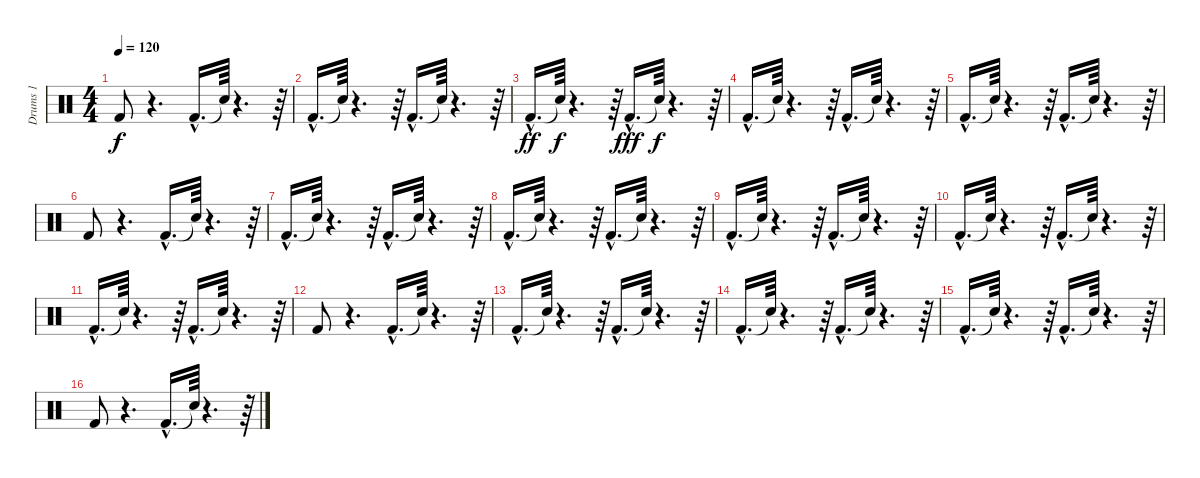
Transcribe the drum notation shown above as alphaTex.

\track ("Drums 1" "Drums 1") {instrument percussion}
\staff {score}
\articulation defaults
\ts (4 4)
\tempo 120
\clef neutral
\ks c "Kick (hit) 2".8{dy f}
r.4{d} "Kick (hit) 2"{hac}.16{d} "Snare (hit)"{t}.64 r.4{d} r.64 |
"Kick (hit) 2"{hac}.16{d} "Snare (hit)"{t}.64 r.4{d} r.64 "Kick (hit) 2"{hac}.16{d} "Snare (hit)"{t}.64 r.4{d} r.64 |
"Kick (hit) 2"{hac}.16{d dy ff} "Snare (hit)"{t}.64{dy f} r.4{d} r.64 "Kick (hit) 2"{hac}.16{d dy fff} "Snare (hit)"{t}.64{dy f} r.4{d} r.64 |
"Kick (hit) 2"{hac}.16{d} "Snare (hit)"{t}.64 r.4{d} r.64 "Kick (hit) 2"{hac}.16{d} "Snare (hit)"{t}.64 r.4{d} r.64 |
"Kick (hit) 2"{hac}.16{d} "Snare (hit)"{t}.64 r.4{d} r.64 "Kick (hit) 2"{hac}.16{d} "Snare (hit)"{t}.64 r.4{d} r.64 |
"Kick (hit) 2".8 r.4{d} "Kick (hit) 2"{hac}.16{d} "Snare (hit)"{t}.64 r.4{d} r.64 |
"Kick (hit) 2"{hac}.16{d} "Snare (hit)"{t}.64 r.4{d} r.64 "Kick (hit) 2"{hac}.16{d} "Snare (hit)"{t}.64 r.4{d} r.64 |
"Kick (hit) 2"{hac}.16{d} "Snare (hit)"{t}.64 r.4{d} r.64 "Kick (hit) 2"{hac}.16{d} "Snare (hit)"{t}.64 r.4{d} r.64 |
"Kick (hit) 2"{hac}.16{d} "Snare (hit)"{t}.64 r.4{d} r.64 "Kick (hit) 2"{hac}.16{d} "Snare (hit)"{t}.64 r.4{d} r.64 |
"Kick (hit) 2"{hac}.16{d} "Snare (hit)"{t}.64 r.4{d} r.64 "Kick (hit) 2"{hac}.16{d} "Snare (hit)"{t}.64 r.4{d} r.64 |
"Kick (hit) 2"{hac}.16{d} "Snare (hit)"{t}.64 r.4{d} r.64 "Kick (hit) 2"{hac}.16{d} "Snare (hit)"{t}.64 r.4{d} r.64 |
"Kick (hit) 2".8 r.4{d} "Kick (hit) 2"{hac}.16{d} "Snare (hit)"{t}.64 r.4{d} r.64 |
"Kick (hit) 2"{hac}.16{d} "Snare (hit)"{t}.64 r.4{d} r.64 "Kick (hit) 2"{hac}.16{d} "Snare (hit)"{t}.64 r.4{d} r.64 |
"Kick (hit) 2"{hac}.16{d} "Snare (hit)"{t}.64 r.4{d} r.64 "Kick (hit) 2"{hac}.16{d} "Snare (hit)"{t}.64 r.4{d} r.64 |
"Kick (hit) 2"{hac}.16{d} "Snare (hit)"{t}.64 r.4{d} r.64 "Kick (hit) 2"{hac}.16{d} "Snare (hit)"{t}.64 r.4{d} r.64 |
"Kick (hit) 2".8 r.4{d} "Kick (hit) 2"{hac}.16{d} "Snare (hit)"{t}.64 r.4{d} r.64
